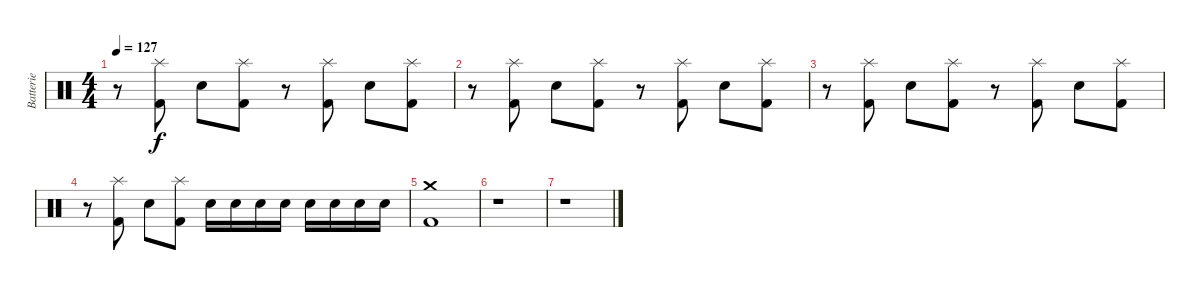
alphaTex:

\track ("Batterie" "Batterie") {instrument percussion}
\staff {score}
\articulation defaults
\ts (4 4)
\tempo 127
\clef neutral
\ks c
r.8{dy f} ("Splash (hit)" "Kick (hit) 2").8 "Snare (hit) 2".8 ("Splash (hit)" "Kick (hit) 2").8 r.8 ("Splash (hit)" "Kick (hit) 2").8 "Snare (hit) 2".8 ("Splash (hit)" "Kick (hit) 2").8 |
r.8 ("Splash (hit)" "Kick (hit) 2").8 "Snare (hit) 2".8 ("Splash (hit)" "Kick (hit) 2").8 r.8 ("Splash (hit)" "Kick (hit) 2").8 "Snare (hit) 2".8 ("Splash (hit)" "Kick (hit) 2").8 |
r.8 ("Splash (hit)" "Kick (hit) 2").8 "Snare (hit) 2".8 ("Splash (hit)" "Kick (hit) 2").8 r.8 ("Splash (hit)" "Kick (hit) 2").8 "Snare (hit) 2".8 ("Splash (hit)" "Kick (hit) 2").8 |
r.8 ("Splash (hit)" "Kick (hit) 2").8 "Snare (hit) 2".8 ("Splash (hit)" "Kick (hit) 2").8 "Snare (hit) 2".16 "Snare (hit) 2".16 "Snare (hit) 2".16 "Snare (hit) 2".16 "Snare (hit) 2".16 "Snare (hit) 2".16 "Snare (hit) 2".16 "Snare (hit) 2".16 |
("Crash medium (hit)" "Kick (hit) 2").1 |
r.1 |
r.1
